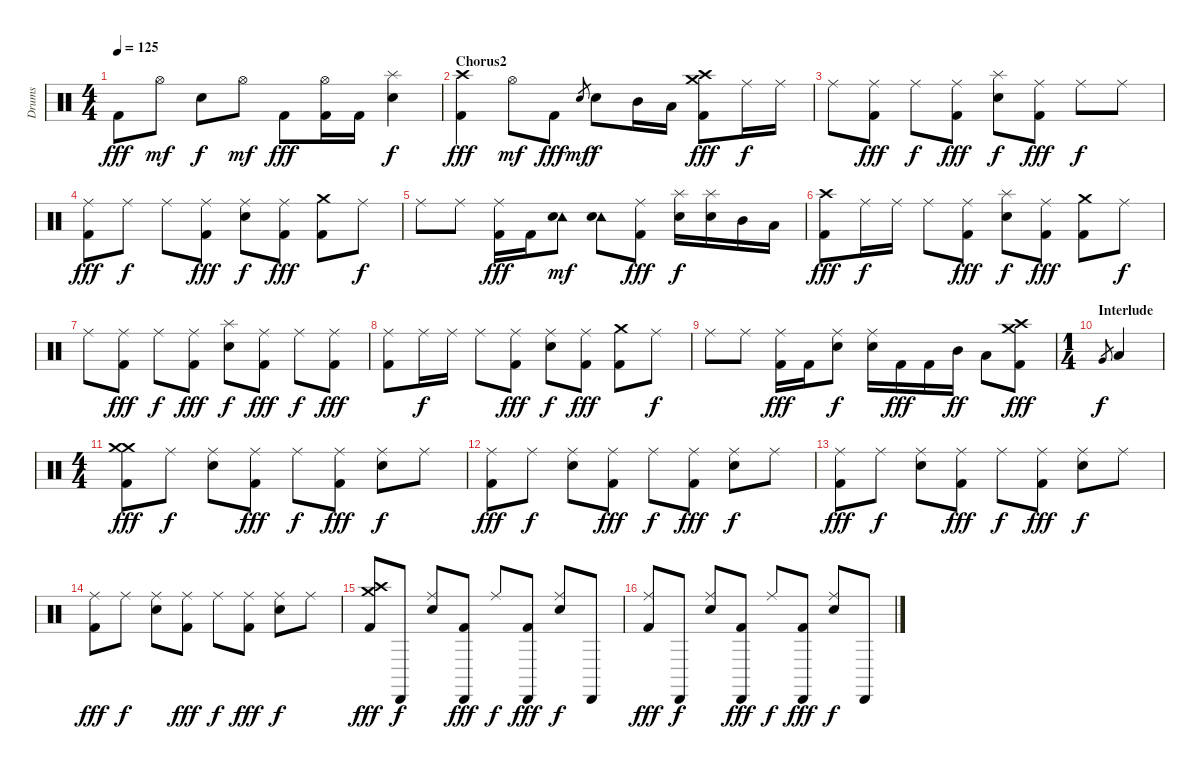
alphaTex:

\track ("Drums" "Drums") {instrument percussion}
\staff {score}
\articulation defaults
\ts (4 4)
\tempo 125
\clef neutral
\ks c "Kick (hit) 2".8{dy fff} "Hi-Hat (open)".8{dy mf} "Electric Snare (hit)".8{dy f} "Hi-Hat (open)".8{dy mf} "Kick (hit) 2".8{dy fff}
("Hi-Hat (open)" "Kick (hit) 2").16 "Kick (hit) 2".16 ("Splash (hit)" "Electric Snare (hit)").4{dy f} |
\section ("" "Chorus2")
("Crash high (hit)" "Kick (hit) 2").4{dy fff} "Hi-Hat (open)".8{dy mf} "Kick (hit) 2".8{dy fff} "Electric Snare (hit)".8{gr dy mf} "Electric Snare (hit)".8{dy f} "Mid Tom (hit)".16 "Low Tom (hit)".16 ("Crash high (hit)" "Crash medium (hit)" "Kick (hit) 2").8{dy fff} "Ride (middle)".16{dy f} "Ride (middle)".16 |
"Ride (middle)".8 ("Ride (middle)" "Kick (hit) 2").8{dy fff} "Ride (middle)".8{dy f} ("Ride (middle)" "Kick (hit) 2").8{dy fff} ("Splash (hit)" "Electric Snare (hit)").8{dy f} ("Ride (middle)" "Kick (hit) 2").8{dy fff} "Ride (middle)".8{dy f} "Ride (middle)".8 |
("Ride (middle)" "Kick (hit) 2").8{dy fff} "Ride (middle)".8{dy f} "Ride (middle)".8 ("Ride (middle)" "Kick (hit) 2").8{dy fff} ("Ride (middle)" "Electric Snare (hit)").8{dy f} ("Ride (middle)" "Kick (hit) 2").8{dy fff} ("Crash medium (hit)" "Kick (hit) 2").8 "Ride (middle)".8{dy f} |
"Ride (middle)".8 "Ride (middle)".8 ("Ride (middle)" "Kick (hit) 2").16{dy fff} "Kick (hit) 2".16 ("Tambourine (hit)" "Electric Snare (hit)").8{dy mf} ("Tambourine (hit)" "Electric Snare (hit)").8 ("Ride (middle)" "Kick (hit) 2").8{dy fff} ("Splash (hit)" "Electric Snare (hit)").16{dy f} ("Splash (hit)" "Electric Snare (hit)").16 "Mid Tom (hit)".16 "Low Tom (hit)".16 |
("Crash high (hit)" "Kick (hit) 2").8{dy fff} "Ride (middle)".16{dy f} "Ride (middle)".16 "Ride (middle)".8 ("Ride (middle)" "Kick (hit) 2").8{dy fff} ("Splash (hit)" "Electric Snare (hit)").8{dy f} ("Ride (middle)" "Kick (hit) 2").8{dy fff} ("Crash medium (hit)" "Kick (hit) 2").8 "Ride (middle)".8{dy f} |
"Ride (middle)".8 ("Ride (middle)" "Kick (hit) 2").8{dy fff} "Ride (middle)".8{dy f} ("Ride (middle)" "Kick (hit) 2").8{dy fff} ("Splash (hit)" "Electric Snare (hit)").8{dy f} ("Ride (middle)" "Kick (hit) 2").8{dy fff} "Ride (middle)".8{dy f} ("Ride (middle)" "Kick (hit) 2").8{dy fff} |
("Ride (middle)" "Kick (hit) 2").8 "Ride (middle)".16{dy f} "Ride (middle)".16 "Ride (middle)".8 ("Ride (middle)" "Kick (hit) 2").8{dy fff} ("Ride (middle)" "Electric Snare (hit)").8{dy f} ("Ride (middle)" "Kick (hit) 2").8{dy fff} ("Crash medium (hit)" "Kick (hit) 2").8 "Ride (middle)".8{dy f} |
"Ride (middle)".8 "Ride (middle)".8 ("Ride (middle)" "Kick (hit) 2").16{dy fff} "Kick (hit) 2".16 ("Ride (middle)" "Electric Snare (hit)").8{dy f} ("Ride (middle)" "Electric Snare (hit)").16 "Kick (hit) 2".16{dy fff} "Kick (hit) 2".16 "Mid Tom (hit)".16{dy ff} "Low Tom (hit)".8 ("Crash medium (hit)" "Crash high (hit)" "Kick (hit) 2").8{dy fff} |
\ts (1 4)
\section ("" "Interlude")
"Very Low Tom (hit)".8{gr dy f} "Low Floor Tom (hit)".4 |
\ts (4 4)
("Crash medium (hit)" "Crash medium (hit)" "Kick (hit) 2").8{dy fff} "Ride (middle)".8{dy f} ("Ride (middle)" "Electric Snare (hit)").8 ("Ride (middle)" "Kick (hit) 2").8{dy fff} "Ride (middle)".8{dy f} ("Ride (middle)" "Kick (hit) 2").8{dy fff} ("Ride (middle)" "Electric Snare (hit)").8{dy f} "Ride (middle)".8 |
("Ride (middle)" "Kick (hit) 2").8{dy fff} "Ride (middle)".8{dy f} ("Ride (middle)" "Electric Snare (hit)").8 ("Ride (middle)" "Kick (hit) 2").8{dy fff} "Ride (middle)".8{dy f} ("Ride (middle)" "Kick (hit) 2").8{dy fff} ("Ride (middle)" "Electric Snare (hit)").8{dy f} "Ride (middle)".8 |
("Ride (middle)" "Kick (hit) 2").8{dy fff} "Ride (middle)".8{dy f} ("Ride (middle)" "Electric Snare (hit)").8 ("Ride (middle)" "Kick (hit) 2").8{dy fff} "Ride (middle)".8{dy f} ("Ride (middle)" "Kick (hit) 2").8{dy fff} ("Ride (middle)" "Electric Snare (hit)").8{dy f} "Ride (middle)".8 |
("Ride (middle)" "Kick (hit) 2").8{dy fff} "Ride (middle)".8{dy f} ("Ride (middle)" "Electric Snare (hit)").8 ("Ride (middle)" "Kick (hit) 2").8{dy fff} "Ride (middle)".8{dy f} ("Ride (middle)" "Kick (hit) 2").8{dy fff} ("Ride (middle)" "Electric Snare (hit)").8{dy f} "Ride (middle)".8 |
("Crash medium (hit)" "Crash high (hit)" "Kick (hit) 2").8{dy fff} "Cabasa (hit)".8{dy f} ("Ride (middle)" "Electric Snare (hit)").8 ("Cabasa (hit)" "Kick (hit) 2").8{dy fff} "Ride (middle)".8{dy f} ("Cabasa (hit)" "Kick (hit) 2").8{dy fff} ("Ride (middle)" "Electric Snare (hit)").8{dy f} "Cabasa (hit)".8 |
("Ride (middle)" "Kick (hit) 2").8{dy fff} "Cabasa (hit)".8{dy f} ("Ride (middle)" "Electric Snare (hit)").8 ("Cabasa (hit)" "Kick (hit) 2").8{dy fff} "Ride (middle)".8{dy f} ("Cabasa (hit)" "Kick (hit) 2").8{dy fff} ("Ride (middle)" "Electric Snare (hit)").8{dy f} "Cabasa (hit)".8
